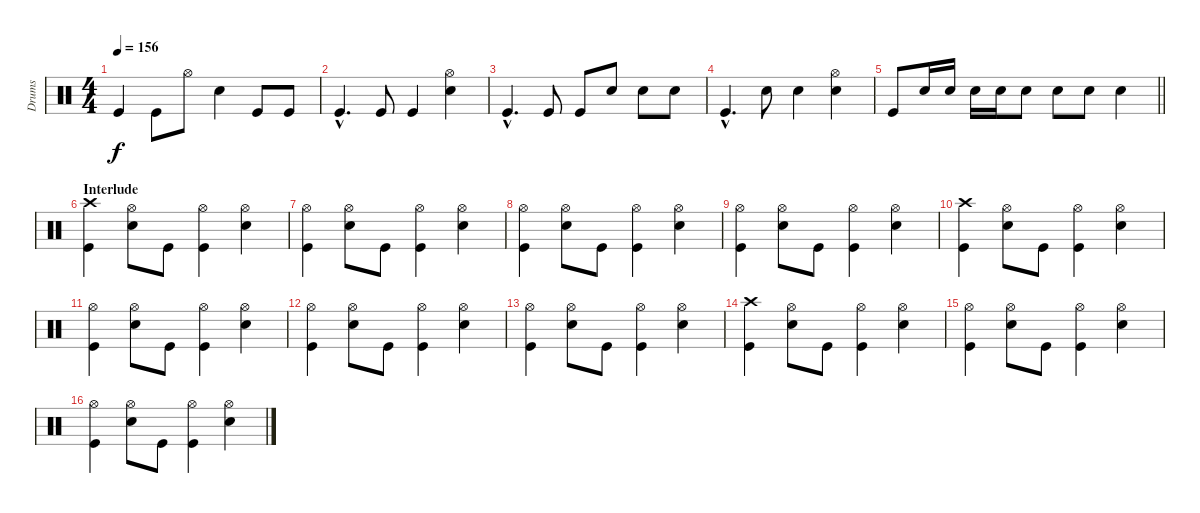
\track ("Drums" "Drums") {instrument percussion}
\staff {score}
\articulation defaults
\ts (4 4)
\tempo 156
\clef neutral
\ks c "Kick (hit)".4{dy f} "Kick (hit)".8 "Hi-Hat (open)".8 "Snare (hit) 2".4 "Kick (hit)".8 "Kick (hit)".8
|
"Kick (hit)"{hac}.4{d} "Kick (hit)".8 "Kick (hit)".4 ("Hi-Hat (open)" "Snare (hit) 2").4 |
"Kick (hit)"{hac}.4{d} "Kick (hit)".8 "Kick (hit)".8 "Snare (hit) 2".8 "Snare (hit) 2".8 "Snare (hit) 2".8 |
"Kick (hit)"{hac}.4{d} "Snare (hit) 2".8 "Snare (hit) 2".4 ("Hi-Hat (open)" "Snare (hit) 2").4 |
\barLineRight lightlight "Kick (hit)".8 "Snare (hit) 2".16 "Snare (hit) 2".16 "Snare (hit) 2".16 "Snare (hit) 2".16 "Snare (hit) 2".8 "Snare (hit) 2".8 "Snare (hit) 2".8 "Snare (hit) 2".4
|
\section ("" "Interlude")
("Crash high (hit)" "Kick (hit)").4 ("Hi-Hat (open)" "Snare (hit) 2").8 "Kick (hit)".8 ("Hi-Hat (open)" "Kick (hit)").4 ("Hi-Hat (open)" "Snare (hit) 2").4 |
("Hi-Hat (open)" "Kick (hit)").4 ("Hi-Hat (open)" "Snare (hit) 2").8 "Kick (hit)".8 ("Hi-Hat (open)" "Kick (hit)").4 ("Hi-Hat (open)" "Snare (hit) 2").4 |
("Hi-Hat (open)" "Kick (hit)").4 ("Hi-Hat (open)" "Snare (hit) 2").8 "Kick (hit)".8 ("Hi-Hat (open)" "Kick (hit)").4 ("Hi-Hat (open)" "Snare (hit) 2").4 |
("Hi-Hat (open)" "Kick (hit)").4 ("Hi-Hat (open)" "Snare (hit) 2").8 "Kick (hit)".8 ("Hi-Hat (open)" "Kick (hit)").4 ("Hi-Hat (open)" "Snare (hit) 2").4 |
("Crash high (hit)" "Kick (hit)").4 ("Hi-Hat (open)" "Snare (hit) 2").8 "Kick (hit)".8 ("Hi-Hat (open)" "Kick (hit)").4 ("Hi-Hat (open)" "Snare (hit) 2").4 |
("Hi-Hat (open)" "Kick (hit)").4 ("Hi-Hat (open)" "Snare (hit) 2").8 "Kick (hit)".8 ("Hi-Hat (open)" "Kick (hit)").4 ("Hi-Hat (open)" "Snare (hit) 2").4 |
("Hi-Hat (open)" "Kick (hit)").4 ("Hi-Hat (open)" "Snare (hit) 2").8 "Kick (hit)".8 ("Hi-Hat (open)" "Kick (hit)").4 ("Hi-Hat (open)" "Snare (hit) 2").4 |
("Hi-Hat (open)" "Kick (hit)").4 ("Hi-Hat (open)" "Snare (hit) 2").8 "Kick (hit)".8 ("Hi-Hat (open)" "Kick (hit)").4 ("Hi-Hat (open)" "Snare (hit) 2").4 |
("Crash high (hit)" "Kick (hit)").4 ("Hi-Hat (open)" "Snare (hit) 2").8 "Kick (hit)".8 ("Hi-Hat (open)" "Kick (hit)").4 ("Hi-Hat (open)" "Snare (hit) 2").4 |
("Hi-Hat (open)" "Kick (hit)").4 ("Hi-Hat (open)" "Snare (hit) 2").8 "Kick (hit)".8 ("Hi-Hat (open)" "Kick (hit)").4 ("Hi-Hat (open)" "Snare (hit) 2").4 |
("Hi-Hat (open)" "Kick (hit)").4 ("Hi-Hat (open)" "Snare (hit) 2").8 "Kick (hit)".8 ("Hi-Hat (open)" "Kick (hit)").4 ("Hi-Hat (open)" "Snare (hit) 2").4
